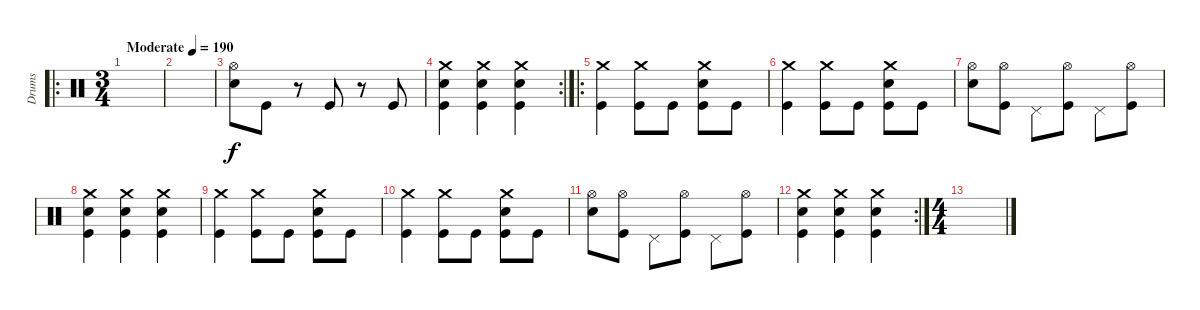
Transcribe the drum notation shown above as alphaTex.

\track ("Drums" "Drums") {instrument percussion}
\staff {score}
\articulation defaults
\ro
\ts (3 4)
\tempo (190 "Moderate")
\clef neutral
\ks c
|
|
("Hi-Hat (open)" "Snare (hit) 2").8 "Kick (hit)".8 r.8 "Kick (hit)".8 r.8 "Kick (hit)".8 |
\rc 2
("Crash medium (hit)" "Snare (hit) 2" "Kick (hit)").4 ("Crash medium (hit)" "Snare (hit) 2" "Kick (hit)").4 ("Crash medium (hit)" "Snare (hit) 2" "Kick (hit)").4 |
\ro
("Crash medium (hit)" "Kick (hit)").4 ("Crash medium (hit)" "Kick (hit)").8 "Kick (hit)".8 ("Crash medium (hit)" "Snare (hit) 2" "Kick (hit)").8 "Kick (hit)".8 |
("Crash medium (hit)" "Kick (hit)").4 ("Crash medium (hit)" "Kick (hit)").8 "Kick (hit)".8 ("Crash medium (hit)" "Snare (hit) 2" "Kick (hit)").8 "Kick (hit)".8 |
("Hi-Hat (open)" "Snare (hit) 2").8 ("Hi-Hat (open)" "Kick (hit)").8 "Pedal Hi-Hat (hit)".8 ("Hi-Hat (open)" "Kick (hit)").8 "Pedal Hi-Hat (hit)".8 ("Hi-Hat (open)" "Kick (hit)").8 |
("Crash medium (hit)" "Snare (hit) 2" "Kick (hit)").4 ("Crash medium (hit)" "Snare (hit) 2" "Kick (hit)").4 ("Crash medium (hit)" "Snare (hit) 2" "Kick (hit)").4 |
("Crash medium (hit)" "Kick (hit)").4 ("Crash medium (hit)" "Kick (hit)").8 "Kick (hit)".8 ("Crash medium (hit)" "Snare (hit) 2" "Kick (hit)").8 "Kick (hit)".8 |
("Crash medium (hit)" "Kick (hit)").4 ("Crash medium (hit)" "Kick (hit)").8 "Kick (hit)".8 ("Crash medium (hit)" "Snare (hit) 2" "Kick (hit)").8 "Kick (hit)".8 |
("Hi-Hat (open)" "Snare (hit) 2").8 ("Hi-Hat (open)" "Kick (hit)").8 "Pedal Hi-Hat (hit)".8 ("Hi-Hat (open)" "Kick (hit)").8 "Pedal Hi-Hat (hit)".8 ("Hi-Hat (open)" "Kick (hit)").8 |
\rc 2
("Crash medium (hit)" "Snare (hit) 2" "Kick (hit)").4 ("Crash medium (hit)" "Snare (hit) 2" "Kick (hit)").4 ("Crash medium (hit)" "Snare (hit) 2" "Kick (hit)").4 |
\ts (4 4)
